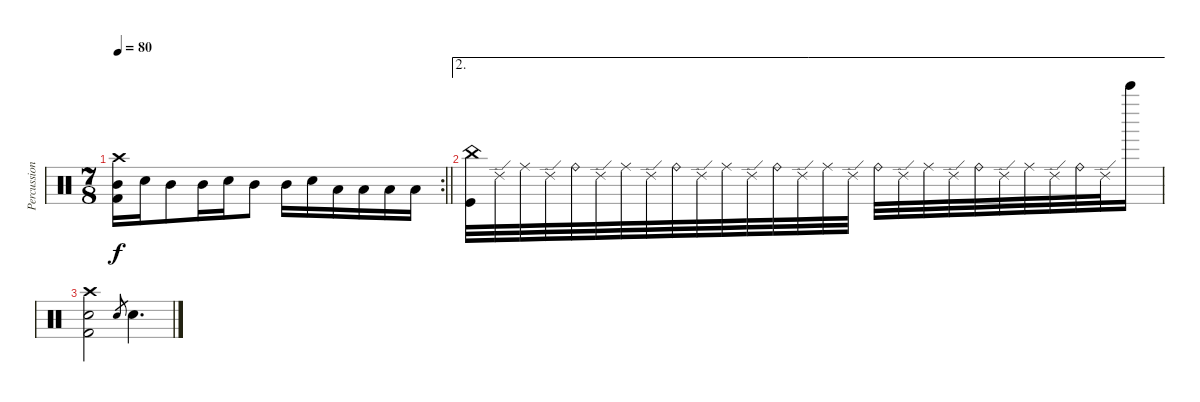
\track ("Percussions" "Percussion") {instrument percussion}
\staff {score}
\articulation defaults
\rc 2
\ts (7 8)
\tempo 80
\clef neutral
\barLineRight lightlight
\ks c
("Crash high (hit)" "Mid Tom (hit)" "Kick (hit) 2").16{dy f volume 10} "Snare (hit) 2".16 "Mid Tom (hit)".8 "Mid Tom (hit)".16 "Snare (hit) 2".16 "Mid Tom (hit)".8 "Mid Tom (hit)".16 "Snare (hit) 2".16 "Low Tom (hit)".16 "Low Tom (hit)".16 "Low Floor Tom (hit)".16 "Low Floor Tom (hit)".16 |
\ae 2
("China (hit)" "Kick (hit)").32 "Ride (edge) 2".32 "Ride (middle)".32 "Ride (edge) 2".32 "Ride (bell)".32 "Ride (edge) 2".32 "Ride (middle)".32 "Ride (edge) 2".32 "Ride (bell)".32 "Ride (edge) 2".32 "Ride (middle)".32 "Ride (edge) 2".32 "Ride (bell)".32 "Ride (edge) 2".32 "Ride (middle)".32 "Ride (edge) 2".32 "Ride (bell)".32 "Ride (edge) 2".32 "Ride (middle)".32 "Ride (edge) 2".32 "Ride (bell)".32 "Ride (edge) 2".32 "Ride (middle)".32 "Ride (edge) 2".32 "Ride (bell)".32 "Ride (edge) 2".32 "Bell Tree (hit)".16 |
("Crash high (hit)" "Snare (hit) 2" "Kick (hit) 2").2 "Snare (hit) 2".8{gr} "Snare (hit) 2".4{d}
